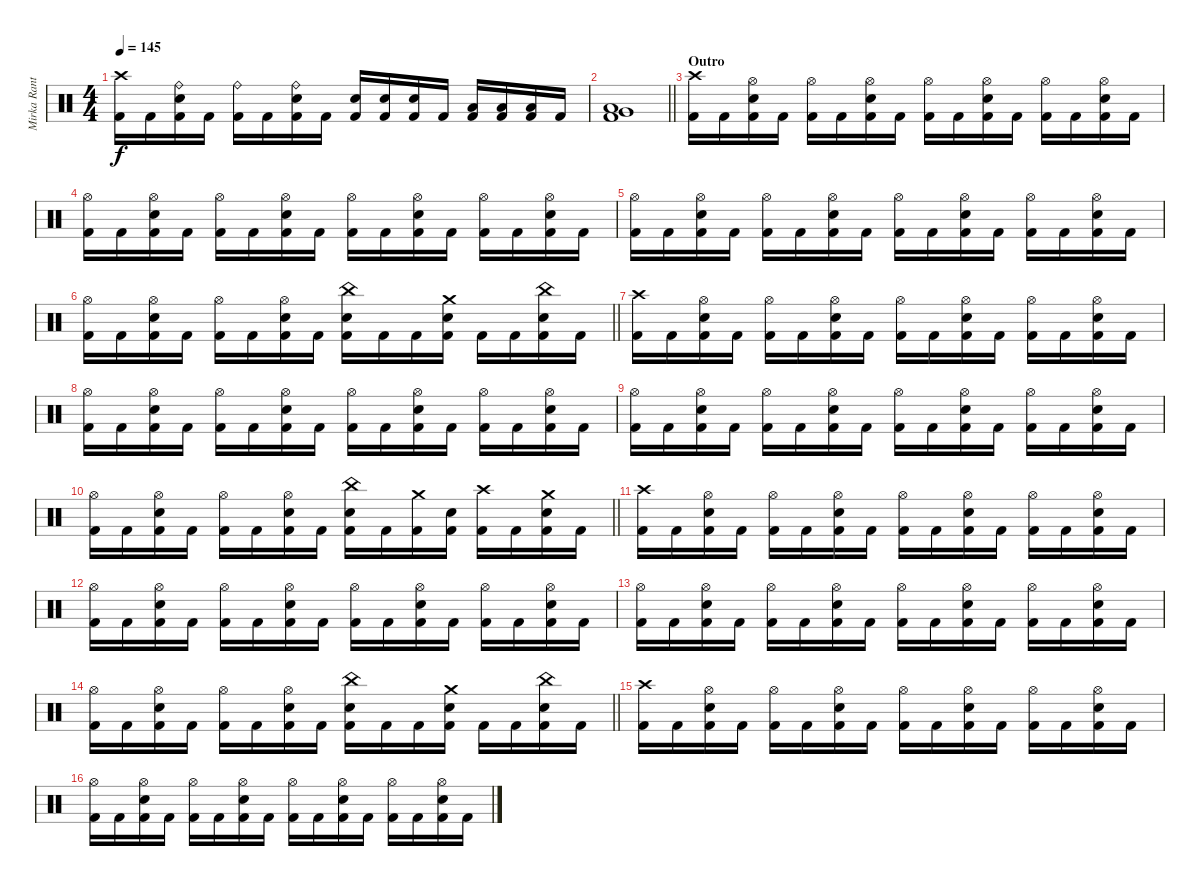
\track ("Mirka Rantanen" "Mirka Rant") {instrument percussion}
\staff {score}
\articulation defaults
\ts (4 4)
\tempo 145
\clef neutral
\ks c
("Crash high (hit)" "Kick (hit) 2").16{dy f} "Kick (hit) 2".16 ("Ride (bell)" "Electric Snare (hit)" "Kick (hit) 2").16 "Kick (hit) 2".16 ("Ride (bell)" "Kick (hit) 2").16 "Kick (hit) 2".16 ("Ride (bell)" "Electric Snare (hit)" "Kick (hit) 2").16 "Kick (hit) 2".16 ("Electric Snare (hit)" "Kick (hit) 2").16 ("Electric Snare (hit)" "Kick (hit) 2").16 ("Electric Snare (hit)" "Kick (hit) 2").16 "Kick (hit) 2".16 ("Low Tom (hit)" "Kick (hit) 2").16 ("Low Tom (hit)" "Kick (hit) 2").16 ("Low Tom (hit)" "Kick (hit) 2").16 "Kick (hit) 2".16 |
\barLineRight lightlight
("Low Tom (hit)" "Very Low Tom (hit)" "Kick (hit) 2").1 |
\section ("" "Outro")
("Crash high (hit)" "Kick (hit) 2").16 "Kick (hit) 2".16 ("Hi-Hat (open)" "Electric Snare (hit)" "Kick (hit) 2").16 "Kick (hit) 2".16 ("Hi-Hat (open)" "Kick (hit) 2").16 "Kick (hit) 2".16 ("Hi-Hat (open)" "Electric Snare (hit)" "Kick (hit) 2").16 "Kick (hit) 2".16 ("Hi-Hat (open)" "Kick (hit) 2").16 "Kick (hit) 2".16 ("Hi-Hat (open)" "Electric Snare (hit)" "Kick (hit) 2").16 "Kick (hit) 2".16 ("Hi-Hat (open)" "Kick (hit) 2").16 "Kick (hit) 2".16 ("Hi-Hat (open)" "Electric Snare (hit)" "Kick (hit) 2").16 "Kick (hit) 2".16 |
("Hi-Hat (open)" "Kick (hit) 2").16 "Kick (hit) 2".16 ("Hi-Hat (open)" "Electric Snare (hit)" "Kick (hit) 2").16 "Kick (hit) 2".16 ("Hi-Hat (open)" "Kick (hit) 2").16 "Kick (hit) 2".16 ("Hi-Hat (open)" "Electric Snare (hit)" "Kick (hit) 2").16 "Kick (hit) 2".16 ("Hi-Hat (open)" "Kick (hit) 2").16 "Kick (hit) 2".16 ("Hi-Hat (open)" "Electric Snare (hit)" "Kick (hit) 2").16 "Kick (hit) 2".16 ("Hi-Hat (open)" "Kick (hit) 2").16 "Kick (hit) 2".16 ("Hi-Hat (open)" "Electric Snare (hit)" "Kick (hit) 2").16 "Kick (hit) 2".16 |
("Hi-Hat (open)" "Kick (hit) 2").16 "Kick (hit) 2".16 ("Hi-Hat (open)" "Electric Snare (hit)" "Kick (hit) 2").16 "Kick (hit) 2".16 ("Hi-Hat (open)" "Kick (hit) 2").16 "Kick (hit) 2".16 ("Hi-Hat (open)" "Electric Snare (hit)" "Kick (hit) 2").16 "Kick (hit) 2".16 ("Hi-Hat (open)" "Kick (hit) 2").16 "Kick (hit) 2".16 ("Hi-Hat (open)" "Electric Snare (hit)" "Kick (hit) 2").16 "Kick (hit) 2".16 ("Hi-Hat (open)" "Kick (hit) 2").16 "Kick (hit) 2".16 ("Hi-Hat (open)" "Electric Snare (hit)" "Kick (hit) 2").16 "Kick (hit) 2".16 |
\barLineRight lightlight
("Hi-Hat (open)" "Kick (hit) 2").16 "Kick (hit) 2".16 ("Hi-Hat (open)" "Electric Snare (hit)" "Kick (hit) 2").16 "Kick (hit) 2".16 ("Hi-Hat (open)" "Kick (hit) 2").16 "Kick (hit) 2".16 ("Hi-Hat (open)" "Electric Snare (hit)" "Kick (hit) 2").16 "Kick (hit) 2".16 ("China (hit)" "Electric Snare (hit)" "Kick (hit) 2").16 "Kick (hit) 2".16 "Kick (hit) 2".16 ("Crash medium (hit)" "Electric Snare (hit)" "Kick (hit) 2").16 "Kick (hit) 2".16 "Kick (hit) 2".16 ("China (hit)" "Electric Snare (hit)" "Kick (hit) 2").16 "Kick (hit) 2".16 |
("Crash high (hit)" "Kick (hit) 2").16 "Kick (hit) 2".16 ("Hi-Hat (open)" "Electric Snare (hit)" "Kick (hit) 2").16 "Kick (hit) 2".16 ("Hi-Hat (open)" "Kick (hit) 2").16 "Kick (hit) 2".16 ("Hi-Hat (open)" "Electric Snare (hit)" "Kick (hit) 2").16 "Kick (hit) 2".16 ("Hi-Hat (open)" "Kick (hit) 2").16 "Kick (hit) 2".16 ("Hi-Hat (open)" "Electric Snare (hit)" "Kick (hit) 2").16 "Kick (hit) 2".16 ("Hi-Hat (open)" "Kick (hit) 2").16 "Kick (hit) 2".16 ("Hi-Hat (open)" "Electric Snare (hit)" "Kick (hit) 2").16 "Kick (hit) 2".16 |
("Hi-Hat (open)" "Kick (hit) 2").16 "Kick (hit) 2".16 ("Hi-Hat (open)" "Electric Snare (hit)" "Kick (hit) 2").16 "Kick (hit) 2".16 ("Hi-Hat (open)" "Kick (hit) 2").16 "Kick (hit) 2".16 ("Hi-Hat (open)" "Electric Snare (hit)" "Kick (hit) 2").16 "Kick (hit) 2".16 ("Hi-Hat (open)" "Kick (hit) 2").16 "Kick (hit) 2".16 ("Hi-Hat (open)" "Electric Snare (hit)" "Kick (hit) 2").16 "Kick (hit) 2".16 ("Hi-Hat (open)" "Kick (hit) 2").16 "Kick (hit) 2".16 ("Hi-Hat (open)" "Electric Snare (hit)" "Kick (hit) 2").16 "Kick (hit) 2".16 |
("Hi-Hat (open)" "Kick (hit) 2").16 "Kick (hit) 2".16 ("Hi-Hat (open)" "Electric Snare (hit)" "Kick (hit) 2").16 "Kick (hit) 2".16 ("Hi-Hat (open)" "Kick (hit) 2").16 "Kick (hit) 2".16 ("Hi-Hat (open)" "Electric Snare (hit)" "Kick (hit) 2").16 "Kick (hit) 2".16 ("Hi-Hat (open)" "Kick (hit) 2").16 "Kick (hit) 2".16 ("Hi-Hat (open)" "Electric Snare (hit)" "Kick (hit) 2").16 "Kick (hit) 2".16 ("Hi-Hat (open)" "Kick (hit) 2").16 "Kick (hit) 2".16 ("Hi-Hat (open)" "Electric Snare (hit)" "Kick (hit) 2").16 "Kick (hit) 2".16 |
\barLineRight lightlight
("Hi-Hat (open)" "Kick (hit) 2").16 "Kick (hit) 2".16 ("Hi-Hat (open)" "Electric Snare (hit)" "Kick (hit) 2").16 "Kick (hit) 2".16 ("Hi-Hat (open)" "Kick (hit) 2").16 "Kick (hit) 2".16 ("Hi-Hat (open)" "Electric Snare (hit)" "Kick (hit) 2").16 "Kick (hit) 2".16 ("China (hit)" "Electric Snare (hit)" "Kick (hit) 2").16 "Kick (hit) 2".16 ("Crash medium (hit)" "Kick (hit) 2").16 ("Electric Snare (hit)" "Kick (hit) 2").16 ("Crash high (hit)" "Kick (hit) 2").16 "Kick (hit) 2".16 ("Crash medium (hit)" "Electric Snare (hit)" "Kick (hit) 2").16 "Kick (hit) 2".16 |
("Crash high (hit)" "Kick (hit) 2").16 "Kick (hit) 2".16 ("Hi-Hat (open)" "Electric Snare (hit)" "Kick (hit) 2").16 "Kick (hit) 2".16 ("Hi-Hat (open)" "Kick (hit) 2").16 "Kick (hit) 2".16 ("Hi-Hat (open)" "Electric Snare (hit)" "Kick (hit) 2").16 "Kick (hit) 2".16 ("Hi-Hat (open)" "Kick (hit) 2").16 "Kick (hit) 2".16 ("Hi-Hat (open)" "Electric Snare (hit)" "Kick (hit) 2").16 "Kick (hit) 2".16 ("Hi-Hat (open)" "Kick (hit) 2").16 "Kick (hit) 2".16 ("Hi-Hat (open)" "Electric Snare (hit)" "Kick (hit) 2").16 "Kick (hit) 2".16 |
("Hi-Hat (open)" "Kick (hit) 2").16 "Kick (hit) 2".16 ("Hi-Hat (open)" "Electric Snare (hit)" "Kick (hit) 2").16 "Kick (hit) 2".16 ("Hi-Hat (open)" "Kick (hit) 2").16 "Kick (hit) 2".16 ("Hi-Hat (open)" "Electric Snare (hit)" "Kick (hit) 2").16 "Kick (hit) 2".16 ("Hi-Hat (open)" "Kick (hit) 2").16 "Kick (hit) 2".16 ("Hi-Hat (open)" "Electric Snare (hit)" "Kick (hit) 2").16 "Kick (hit) 2".16 ("Hi-Hat (open)" "Kick (hit) 2").16 "Kick (hit) 2".16 ("Hi-Hat (open)" "Electric Snare (hit)" "Kick (hit) 2").16 "Kick (hit) 2".16 |
("Hi-Hat (open)" "Kick (hit) 2").16 "Kick (hit) 2".16 ("Hi-Hat (open)" "Electric Snare (hit)" "Kick (hit) 2").16 "Kick (hit) 2".16 ("Hi-Hat (open)" "Kick (hit) 2").16 "Kick (hit) 2".16 ("Hi-Hat (open)" "Electric Snare (hit)" "Kick (hit) 2").16 "Kick (hit) 2".16 ("Hi-Hat (open)" "Kick (hit) 2").16 "Kick (hit) 2".16 ("Hi-Hat (open)" "Electric Snare (hit)" "Kick (hit) 2").16 "Kick (hit) 2".16 ("Hi-Hat (open)" "Kick (hit) 2").16 "Kick (hit) 2".16 ("Hi-Hat (open)" "Electric Snare (hit)" "Kick (hit) 2").16 "Kick (hit) 2".16 |
\barLineRight lightlight
("Hi-Hat (open)" "Kick (hit) 2").16 "Kick (hit) 2".16 ("Hi-Hat (open)" "Electric Snare (hit)" "Kick (hit) 2").16 "Kick (hit) 2".16 ("Hi-Hat (open)" "Kick (hit) 2").16 "Kick (hit) 2".16 ("Hi-Hat (open)" "Electric Snare (hit)" "Kick (hit) 2").16 "Kick (hit) 2".16 ("China (hit)" "Electric Snare (hit)" "Kick (hit) 2").16 "Kick (hit) 2".16 "Kick (hit) 2".16 ("Crash medium (hit)" "Electric Snare (hit)" "Kick (hit) 2").16 "Kick (hit) 2".16 "Kick (hit) 2".16 ("China (hit)" "Electric Snare (hit)" "Kick (hit) 2").16 "Kick (hit) 2".16 |
("Crash high (hit)" "Kick (hit) 2").16 "Kick (hit) 2".16 ("Hi-Hat (open)" "Electric Snare (hit)" "Kick (hit) 2").16 "Kick (hit) 2".16 ("Hi-Hat (open)" "Kick (hit) 2").16 "Kick (hit) 2".16 ("Hi-Hat (open)" "Electric Snare (hit)" "Kick (hit) 2").16 "Kick (hit) 2".16 ("Hi-Hat (open)" "Kick (hit) 2").16 "Kick (hit) 2".16 ("Hi-Hat (open)" "Electric Snare (hit)" "Kick (hit) 2").16 "Kick (hit) 2".16 ("Hi-Hat (open)" "Kick (hit) 2").16 "Kick (hit) 2".16 ("Hi-Hat (open)" "Electric Snare (hit)" "Kick (hit) 2").16 "Kick (hit) 2".16 |
("Hi-Hat (open)" "Kick (hit) 2").16 "Kick (hit) 2".16 ("Hi-Hat (open)" "Electric Snare (hit)" "Kick (hit) 2").16 "Kick (hit) 2".16 ("Hi-Hat (open)" "Kick (hit) 2").16 "Kick (hit) 2".16 ("Hi-Hat (open)" "Electric Snare (hit)" "Kick (hit) 2").16 "Kick (hit) 2".16 ("Hi-Hat (open)" "Kick (hit) 2").16 "Kick (hit) 2".16 ("Hi-Hat (open)" "Electric Snare (hit)" "Kick (hit) 2").16 "Kick (hit) 2".16 ("Hi-Hat (open)" "Kick (hit) 2").16 "Kick (hit) 2".16 ("Hi-Hat (open)" "Electric Snare (hit)" "Kick (hit) 2").16 "Kick (hit) 2".16
